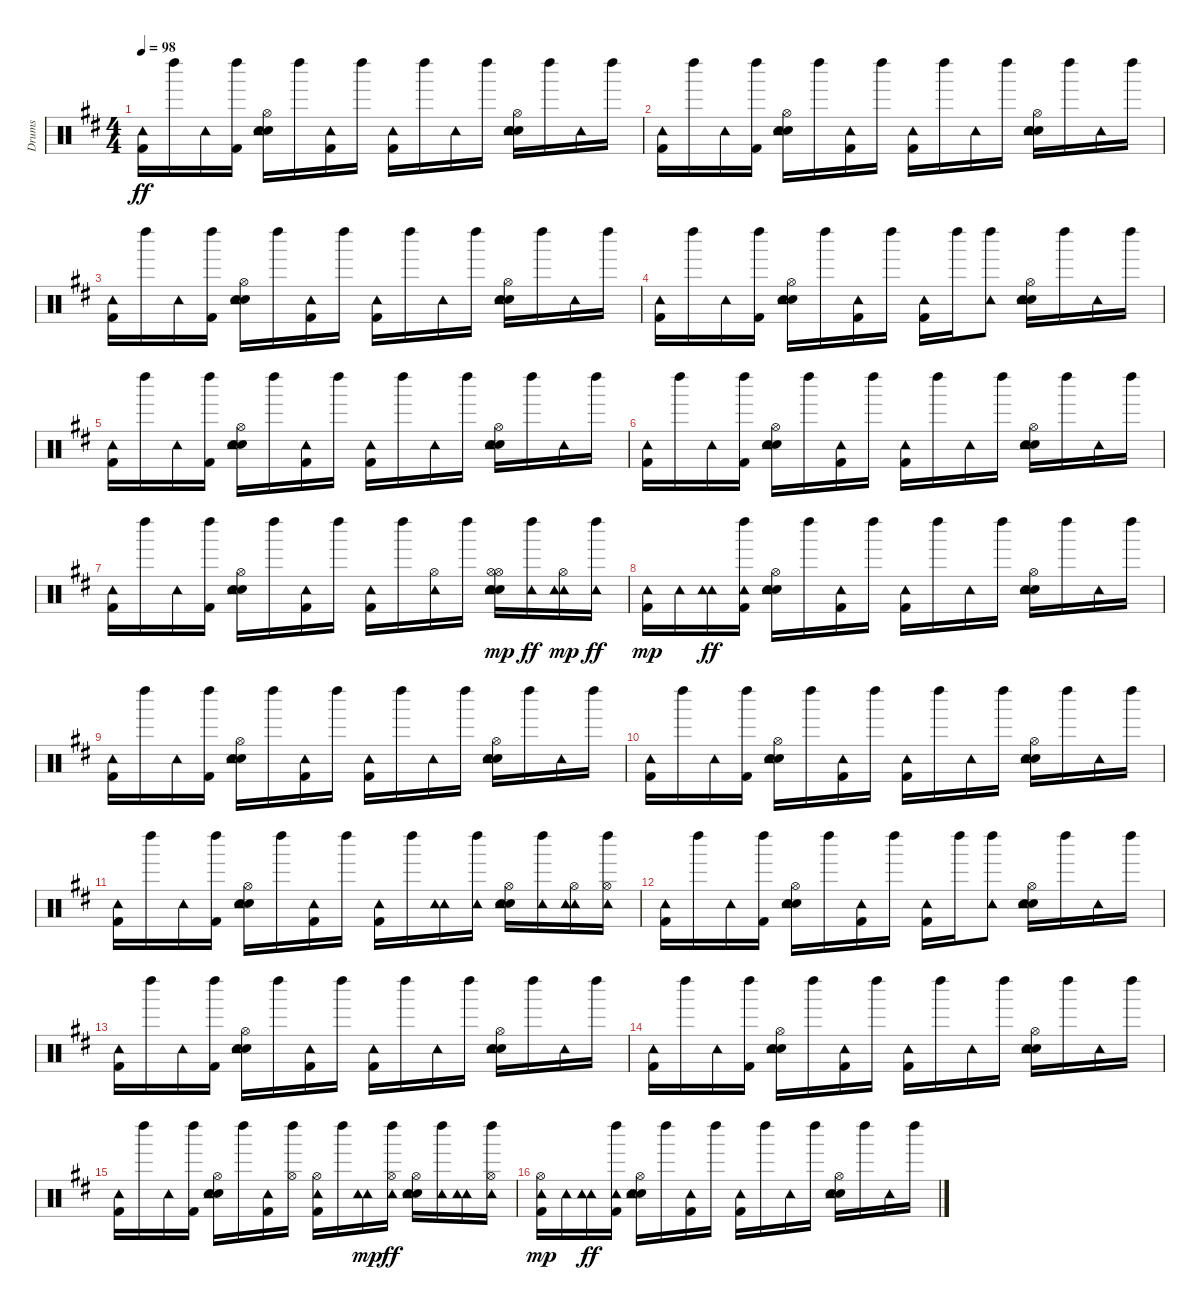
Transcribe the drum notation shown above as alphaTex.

\track ("Drums" "Drums") {instrument percussion}
\staff {score}
\articulation defaults
\ts (4 4)
\tempo 98
\clef neutral
\ks d
("Kick (hit) 2" "Tambourine (hit)").16{dy ff} "Left Maraca (hit)".16 "Tambourine (hit)".16 ("Kick (hit) 2" "Left Maraca (hit)").16 ("Snare (hit) 2" "Electric Snare (hit)" "Hi-Hat (open)" "Tambourine (hit)").16 "Left Maraca (hit)".16 ("Kick (hit) 2" "Tambourine (hit)").16 "Left Maraca (hit)".16 ("Kick (hit) 2" "Tambourine (hit)").16 "Left Maraca (hit)".16 "Tambourine (hit)".16 "Left Maraca (hit)".16 ("Snare (hit) 2" "Electric Snare (hit)" "Hi-Hat (open)" "Tambourine (hit)").16 "Left Maraca (hit)".16 "Tambourine (hit)".16 "Left Maraca (hit)".16 |
("Kick (hit) 2" "Tambourine (hit)").16 "Left Maraca (hit)".16 "Tambourine (hit)".16 ("Kick (hit) 2" "Left Maraca (hit)").16 ("Snare (hit) 2" "Electric Snare (hit)" "Hi-Hat (open)" "Tambourine (hit)").16 "Left Maraca (hit)".16 ("Kick (hit) 2" "Tambourine (hit)").16 "Left Maraca (hit)".16 ("Kick (hit) 2" "Tambourine (hit)").16 "Left Maraca (hit)".16 "Tambourine (hit)".16 "Left Maraca (hit)".16 ("Snare (hit) 2" "Electric Snare (hit)" "Hi-Hat (open)" "Tambourine (hit)").16 "Left Maraca (hit)".16 "Tambourine (hit)".16 "Left Maraca (hit)".16 |
("Kick (hit) 2" "Tambourine (hit)").16 "Left Maraca (hit)".16 "Tambourine (hit)".16 ("Kick (hit) 2" "Left Maraca (hit)").16 ("Snare (hit) 2" "Electric Snare (hit)" "Hi-Hat (open)" "Tambourine (hit)").16 "Left Maraca (hit)".16 ("Kick (hit) 2" "Tambourine (hit)").16 "Left Maraca (hit)".16 ("Kick (hit) 2" "Tambourine (hit)").16 "Left Maraca (hit)".16 "Tambourine (hit)".16 "Left Maraca (hit)".16 ("Snare (hit) 2" "Electric Snare (hit)" "Hi-Hat (open)" "Tambourine (hit)").16 "Left Maraca (hit)".16 "Tambourine (hit)".16 "Left Maraca (hit)".16 |
("Kick (hit) 2" "Tambourine (hit)").16 "Left Maraca (hit)".16 "Tambourine (hit)".16 ("Kick (hit) 2" "Left Maraca (hit)").16 ("Snare (hit) 2" "Electric Snare (hit)" "Hi-Hat (open)" "Tambourine (hit)").16 "Left Maraca (hit)".16 ("Kick (hit) 2" "Tambourine (hit)").16 "Left Maraca (hit)".16 ("Kick (hit) 2" "Tambourine (hit)").16 "Left Maraca (hit)".16 ("Tambourine (hit)" "Left Maraca (hit)").8 ("Snare (hit) 2" "Electric Snare (hit)" "Hi-Hat (open)" "Tambourine (hit)").16 "Left Maraca (hit)".16 "Tambourine (hit)".16 "Left Maraca (hit)".16 |
("Kick (hit) 2" "Tambourine (hit)").16 "Left Maraca (hit)".16 "Tambourine (hit)".16 ("Kick (hit) 2" "Left Maraca (hit)").16 ("Snare (hit) 2" "Electric Snare (hit)" "Hi-Hat (open)" "Tambourine (hit)").16 "Left Maraca (hit)".16 ("Kick (hit) 2" "Tambourine (hit)").16 "Left Maraca (hit)".16 ("Kick (hit) 2" "Tambourine (hit)").16 "Left Maraca (hit)".16 "Tambourine (hit)".16 "Left Maraca (hit)".16 ("Snare (hit) 2" "Electric Snare (hit)" "Hi-Hat (open)" "Tambourine (hit)").16 "Left Maraca (hit)".16 "Tambourine (hit)".16 "Left Maraca (hit)".16 |
("Kick (hit) 2" "Tambourine (hit)").16 "Left Maraca (hit)".16 "Tambourine (hit)".16 ("Kick (hit) 2" "Left Maraca (hit)").16 ("Snare (hit) 2" "Electric Snare (hit)" "Hi-Hat (open)" "Tambourine (hit)").16 "Left Maraca (hit)".16 ("Kick (hit) 2" "Tambourine (hit)").16 "Left Maraca (hit)".16 ("Kick (hit) 2" "Tambourine (hit)").16 "Left Maraca (hit)".16 "Tambourine (hit)".16 "Left Maraca (hit)".16 ("Snare (hit) 2" "Electric Snare (hit)" "Hi-Hat (open)" "Tambourine (hit)").16 "Left Maraca (hit)".16 "Tambourine (hit)".16 "Left Maraca (hit)".16 |
("Kick (hit) 2" "Tambourine (hit)").16 "Left Maraca (hit)".16 "Tambourine (hit)".16 ("Kick (hit) 2" "Left Maraca (hit)").16 ("Snare (hit) 2" "Electric Snare (hit)" "Hi-Hat (open)" "Tambourine (hit)").16 "Left Maraca (hit)".16 ("Kick (hit) 2" "Tambourine (hit)").16 "Left Maraca (hit)".16 ("Kick (hit) 2" "Tambourine (hit)").16 "Left Maraca (hit)".16 ("Hi-Hat (open)" "Tambourine (hit)").16 "Left Maraca (hit)".16 ("Snare (hit) 2" "Electric Snare (hit)" "Hi-Hat (open)" "Hi-Hat (open)" "Tambourine (hit)" "Tambourine (hit)").16{dy mp} ("Tambourine (hit)" "Left Maraca (hit)").16{dy ff} ("Hi-Hat (open)" "Tambourine (hit)" "Tambourine (hit)").16{dy mp} ("Tambourine (hit)" "Left Maraca (hit)").16{dy ff} |
("Kick (hit) 2" "Tambourine (hit)").16{dy mp} "Tambourine (hit)".16 ("Tambourine (hit)" "Tambourine (hit)").16{dy ff} ("Kick (hit) 2" "Tambourine (hit)" "Left Maraca (hit)").16 ("Snare (hit) 2" "Electric Snare (hit)" "Hi-Hat (open)" "Tambourine (hit)").16 "Left Maraca (hit)".16 ("Kick (hit) 2" "Tambourine (hit)").16 "Left Maraca (hit)".16 ("Kick (hit) 2" "Tambourine (hit)").16 "Left Maraca (hit)".16 "Tambourine (hit)".16 "Left Maraca (hit)".16 ("Snare (hit) 2" "Electric Snare (hit)" "Hi-Hat (open)" "Tambourine (hit)").16 "Left Maraca (hit)".16 "Tambourine (hit)".16 "Left Maraca (hit)".16 |
("Kick (hit) 2" "Tambourine (hit)").16 "Left Maraca (hit)".16 "Tambourine (hit)".16 ("Kick (hit) 2" "Left Maraca (hit)").16 ("Snare (hit) 2" "Electric Snare (hit)" "Hi-Hat (open)" "Tambourine (hit)").16 "Left Maraca (hit)".16 ("Kick (hit) 2" "Tambourine (hit)").16 "Left Maraca (hit)".16 ("Kick (hit) 2" "Tambourine (hit)").16 "Left Maraca (hit)".16 "Tambourine (hit)".16 "Left Maraca (hit)".16 ("Snare (hit) 2" "Electric Snare (hit)" "Hi-Hat (open)" "Tambourine (hit)").16 "Left Maraca (hit)".16 "Tambourine (hit)".16 "Left Maraca (hit)".16 |
("Kick (hit) 2" "Tambourine (hit)").16 "Left Maraca (hit)".16 "Tambourine (hit)".16 ("Kick (hit) 2" "Left Maraca (hit)").16 ("Snare (hit) 2" "Electric Snare (hit)" "Hi-Hat (open)" "Tambourine (hit)").16 "Left Maraca (hit)".16 ("Kick (hit) 2" "Tambourine (hit)").16 "Left Maraca (hit)".16 ("Kick (hit) 2" "Tambourine (hit)").16 "Left Maraca (hit)".16 "Tambourine (hit)".16 "Left Maraca (hit)".16 ("Snare (hit) 2" "Electric Snare (hit)" "Hi-Hat (open)" "Tambourine (hit)").16 "Left Maraca (hit)".16 "Tambourine (hit)".16 "Left Maraca (hit)".16 |
("Kick (hit) 2" "Tambourine (hit)").16 "Left Maraca (hit)".16 "Tambourine (hit)".16 ("Kick (hit) 2" "Left Maraca (hit)").16 ("Snare (hit) 2" "Electric Snare (hit)" "Hi-Hat (open)" "Tambourine (hit)").16 "Left Maraca (hit)".16 ("Kick (hit) 2" "Tambourine (hit)").16 "Left Maraca (hit)".16 ("Kick (hit) 2" "Tambourine (hit)").16 "Left Maraca (hit)".16 ("Tambourine (hit)" "Tambourine (hit)").16 ("Tambourine (hit)" "Left Maraca (hit)").16 ("Snare (hit) 2" "Electric Snare (hit)" "Hi-Hat (open)" "Tambourine (hit)" "Tambourine (hit)").16 ("Tambourine (hit)" "Left Maraca (hit)").16 ("Hi-Hat (open)" "Tambourine (hit)" "Tambourine (hit)").16 ("Hi-Hat (open)" "Tambourine (hit)" "Left Maraca (hit)").16 |
("Kick (hit) 2" "Tambourine (hit)").16 "Left Maraca (hit)".16 "Tambourine (hit)".16 ("Kick (hit) 2" "Left Maraca (hit)").16 ("Snare (hit) 2" "Electric Snare (hit)" "Hi-Hat (open)" "Tambourine (hit)").16 "Left Maraca (hit)".16 ("Kick (hit) 2" "Tambourine (hit)").16 "Left Maraca (hit)".16 ("Kick (hit) 2" "Tambourine (hit)").16 "Left Maraca (hit)".16 ("Tambourine (hit)" "Left Maraca (hit)").8 ("Snare (hit) 2" "Electric Snare (hit)" "Hi-Hat (open)" "Tambourine (hit)").16 "Left Maraca (hit)".16 "Tambourine (hit)".16 "Left Maraca (hit)".16 |
("Kick (hit) 2" "Tambourine (hit)").16 "Left Maraca (hit)".16 "Tambourine (hit)".16 ("Kick (hit) 2" "Left Maraca (hit)").16 ("Snare (hit) 2" "Electric Snare (hit)" "Hi-Hat (open)" "Tambourine (hit)").16 "Left Maraca (hit)".16 ("Kick (hit) 2" "Tambourine (hit)").16 "Left Maraca (hit)".16 ("Kick (hit) 2" "Tambourine (hit)").16 "Left Maraca (hit)".16 "Tambourine (hit)".16 "Left Maraca (hit)".16 ("Snare (hit) 2" "Electric Snare (hit)" "Hi-Hat (open)" "Tambourine (hit)").16 "Left Maraca (hit)".16 "Tambourine (hit)".16 "Left Maraca (hit)".16 |
("Kick (hit) 2" "Tambourine (hit)").16 "Left Maraca (hit)".16 "Tambourine (hit)".16 ("Kick (hit) 2" "Left Maraca (hit)").16 ("Snare (hit) 2" "Electric Snare (hit)" "Hi-Hat (open)" "Tambourine (hit)").16 "Left Maraca (hit)".16 ("Kick (hit) 2" "Tambourine (hit)").16 "Left Maraca (hit)".16 ("Kick (hit) 2" "Tambourine (hit)").16 "Left Maraca (hit)".16 "Tambourine (hit)".16 "Left Maraca (hit)".16 ("Snare (hit) 2" "Electric Snare (hit)" "Hi-Hat (open)" "Tambourine (hit)").16 "Left Maraca (hit)".16 "Tambourine (hit)".16 "Left Maraca (hit)".16 |
("Kick (hit) 2" "Tambourine (hit)").16 "Left Maraca (hit)".16 "Tambourine (hit)".16 ("Kick (hit) 2" "Left Maraca (hit)").16 ("Snare (hit) 2" "Electric Snare (hit)" "Hi-Hat (open)" "Tambourine (hit)").16 "Left Maraca (hit)".16 ("Kick (hit) 2" "Tambourine (hit)").16 ("Hi-Hat (open)" "Left Maraca (hit)").16 ("Kick (hit) 2" "Hi-Hat (open)" "Tambourine (hit)").16 "Left Maraca (hit)".16 ("Tambourine (hit)" "Tambourine (hit)").16{dy mp} ("Hi-Hat (open)" "Tambourine (hit)" "Left Maraca (hit)").16{dy ff} ("Snare (hit) 2" "Electric Snare (hit)" "Hi-Hat (open)" "Tambourine (hit)" "Tambourine (hit)").16 ("Tambourine (hit)" "Left Maraca (hit)").16 ("Tambourine (hit)" "Tambourine (hit)").16 ("Hi-Hat (open)" "Tambourine (hit)" "Left Maraca (hit)").16 |
("Kick (hit) 2" "Hi-Hat (open)" "Tambourine (hit)").16{dy mp} "Tambourine (hit)".16 ("Tambourine (hit)" "Tambourine (hit)").16{dy ff} ("Kick (hit) 2" "Tambourine (hit)" "Left Maraca (hit)").16 ("Snare (hit) 2" "Electric Snare (hit)" "Hi-Hat (open)" "Tambourine (hit)" "Tambourine (hit)").16 "Left Maraca (hit)".16 ("Kick (hit) 2" "Tambourine (hit)").16 "Left Maraca (hit)".16 ("Kick (hit) 2" "Tambourine (hit)").16 "Left Maraca (hit)".16 "Tambourine (hit)".16 "Left Maraca (hit)".16 ("Snare (hit) 2" "Electric Snare (hit)" "Hi-Hat (open)" "Tambourine (hit)").16 "Left Maraca (hit)".16 "Tambourine (hit)".16 "Left Maraca (hit)".16
